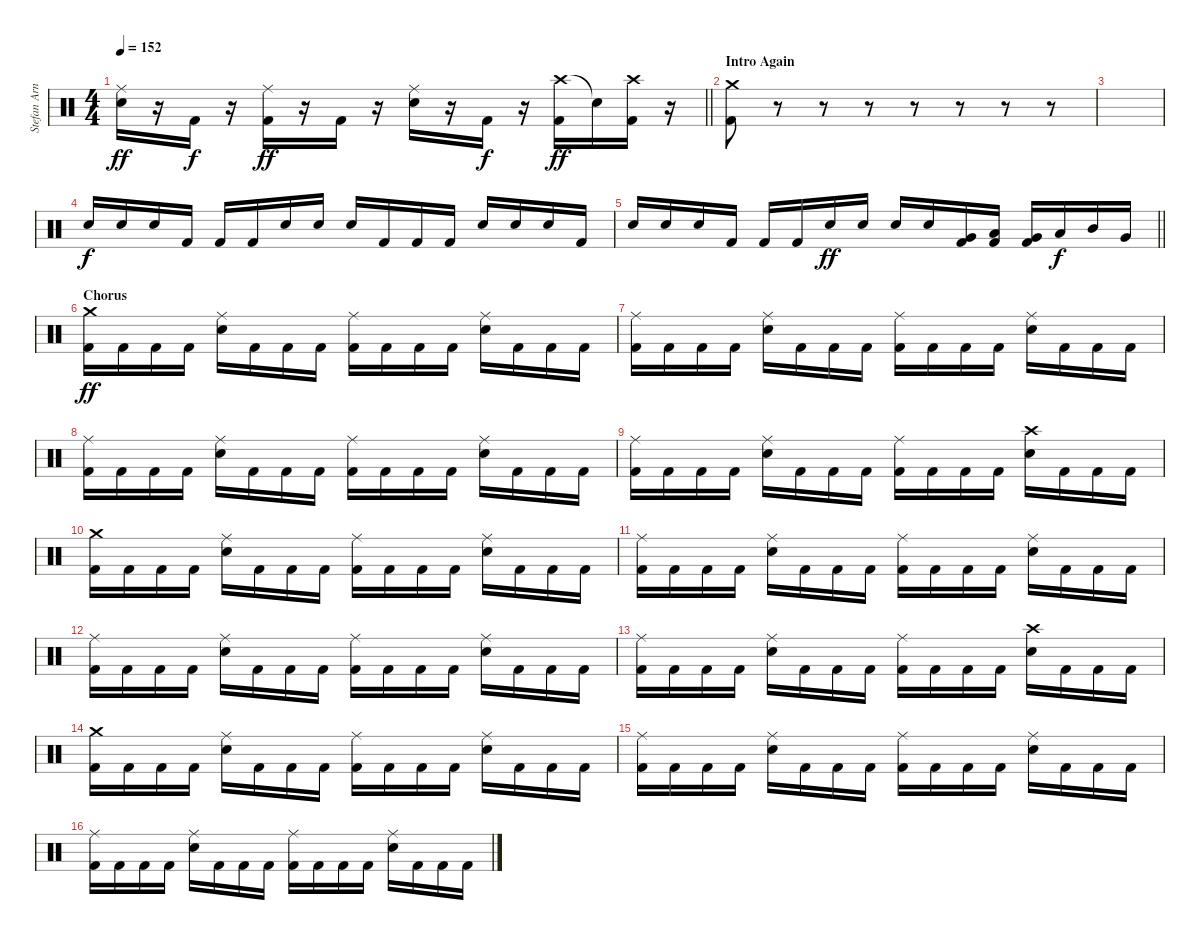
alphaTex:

\track ("Stefan Arnold" "Stefan Arn") {instrument percussion}
\staff {score}
\articulation defaults
\ts (4 4)
\tempo 152
\clef neutral
\barLineRight lightlight
\ks c
("Ride (middle)" "Electric Snare (hit)").16{dy ff} r.16 "Kick (hit) 2".16{dy f} r.16 ("Ride (middle)" "Kick (hit) 2").16{dy ff} r.16 "Kick (hit) 2".16 r.16 ("Ride (middle)" "Electric Snare (hit)").16 r.16 "Kick (hit) 2".16{dy f} r.16 ("Crash high (hit)" "Kick (hit) 2").16{dy ff} "Snare (hit)"{t}.16 ("Crash high (hit)" "Kick (hit) 2").16 r.16 |
\section ("" "Intro Again")
("Crash medium (hit)" "Kick (hit) 2").8 r.8 r.8 r.8 r.8 r.8 r.8 r.8 |
|
"Electric Snare (hit)".16{dy f} "Electric Snare (hit)".16 "Electric Snare (hit)".16 "Kick (hit) 2".16 "Kick (hit) 2".16 "Kick (hit) 2".16 "Electric Snare (hit)".16 "Electric Snare (hit)".16 "Electric Snare (hit)".16 "Kick (hit) 2".16 "Kick (hit) 2".16 "Kick (hit) 2".16 "Electric Snare (hit)".16 "Electric Snare (hit)".16 "Electric Snare (hit)".16 "Kick (hit) 2".16 |
\barLineRight lightlight "Electric Snare (hit)".16 "Electric Snare (hit)".16 "Electric Snare (hit)".16 "Kick (hit) 2".16 "Kick (hit) 2".16 "Kick (hit) 2".16 "Electric Snare (hit)".16{dy ff} "Electric Snare (hit)".16 "Electric Snare (hit)".16 "Electric Snare (hit)".16
("Very Low Tom (hit)" "Kick (hit) 2").16 ("Low Floor Tom (hit)" "Kick (hit) 2").16 ("Very Low Tom (hit)" "Kick (hit) 2").16 "Low Tom (hit)".16{dy f} "Mid Tom (hit)".16 "Very Low Tom (hit)".16 |
\section ("" "Chorus")
("Crash medium (hit)" "Kick (hit) 2").16{dy ff} "Kick (hit) 2".16 "Kick (hit) 2".16 "Kick (hit) 2".16 ("Ride (middle)" "Electric Snare (hit)").16 "Kick (hit) 2".16 "Kick (hit) 2".16 "Kick (hit) 2".16 ("Ride (middle)" "Kick (hit) 2").16 "Kick (hit) 2".16 "Kick (hit) 2".16 "Kick (hit) 2".16 ("Ride (middle)" "Electric Snare (hit)").16 "Kick (hit) 2".16 "Kick (hit) 2".16 "Kick (hit) 2".16 |
("Ride (middle)" "Kick (hit) 2").16 "Kick (hit) 2".16 "Kick (hit) 2".16 "Kick (hit) 2".16 ("Ride (middle)" "Electric Snare (hit)").16 "Kick (hit) 2".16 "Kick (hit) 2".16 "Kick (hit) 2".16 ("Ride (middle)" "Kick (hit) 2").16 "Kick (hit) 2".16 "Kick (hit) 2".16 "Kick (hit) 2".16 ("Ride (middle)" "Electric Snare (hit)").16 "Kick (hit) 2".16 "Kick (hit) 2".16 "Kick (hit) 2".16 |
("Ride (middle)" "Kick (hit) 2").16 "Kick (hit) 2".16 "Kick (hit) 2".16 "Kick (hit) 2".16 ("Ride (middle)" "Electric Snare (hit)").16 "Kick (hit) 2".16 "Kick (hit) 2".16 "Kick (hit) 2".16 ("Ride (middle)" "Kick (hit) 2").16 "Kick (hit) 2".16 "Kick (hit) 2".16 "Kick (hit) 2".16 ("Ride (middle)" "Electric Snare (hit)").16 "Kick (hit) 2".16 "Kick (hit) 2".16 "Kick (hit) 2".16 |
("Ride (middle)" "Kick (hit) 2").16 "Kick (hit) 2".16 "Kick (hit) 2".16 "Kick (hit) 2".16 ("Ride (middle)" "Electric Snare (hit)").16 "Kick (hit) 2".16 "Kick (hit) 2".16 "Kick (hit) 2".16 ("Ride (middle)" "Kick (hit) 2").16 "Kick (hit) 2".16 "Kick (hit) 2".16 "Kick (hit) 2".16 ("Crash high (hit)" "Electric Snare (hit)").16 "Kick (hit) 2".16 "Kick (hit) 2".16 "Kick (hit) 2".16 |
("Crash medium (hit)" "Kick (hit) 2").16 "Kick (hit) 2".16 "Kick (hit) 2".16 "Kick (hit) 2".16 ("Ride (middle)" "Electric Snare (hit)").16 "Kick (hit) 2".16 "Kick (hit) 2".16 "Kick (hit) 2".16 ("Ride (middle)" "Kick (hit) 2").16 "Kick (hit) 2".16 "Kick (hit) 2".16 "Kick (hit) 2".16 ("Ride (middle)" "Electric Snare (hit)").16 "Kick (hit) 2".16 "Kick (hit) 2".16 "Kick (hit) 2".16 |
("Ride (middle)" "Kick (hit) 2").16 "Kick (hit) 2".16 "Kick (hit) 2".16 "Kick (hit) 2".16 ("Ride (middle)" "Electric Snare (hit)").16 "Kick (hit) 2".16 "Kick (hit) 2".16 "Kick (hit) 2".16 ("Ride (middle)" "Kick (hit) 2").16 "Kick (hit) 2".16 "Kick (hit) 2".16 "Kick (hit) 2".16 ("Ride (middle)" "Electric Snare (hit)").16 "Kick (hit) 2".16 "Kick (hit) 2".16 "Kick (hit) 2".16 |
("Ride (middle)" "Kick (hit) 2").16 "Kick (hit) 2".16 "Kick (hit) 2".16 "Kick (hit) 2".16 ("Ride (middle)" "Electric Snare (hit)").16 "Kick (hit) 2".16 "Kick (hit) 2".16 "Kick (hit) 2".16 ("Ride (middle)" "Kick (hit) 2").16 "Kick (hit) 2".16 "Kick (hit) 2".16 "Kick (hit) 2".16 ("Ride (middle)" "Electric Snare (hit)").16 "Kick (hit) 2".16 "Kick (hit) 2".16 "Kick (hit) 2".16 |
("Ride (middle)" "Kick (hit) 2").16 "Kick (hit) 2".16 "Kick (hit) 2".16 "Kick (hit) 2".16 ("Ride (middle)" "Electric Snare (hit)").16 "Kick (hit) 2".16 "Kick (hit) 2".16 "Kick (hit) 2".16 ("Ride (middle)" "Kick (hit) 2").16 "Kick (hit) 2".16 "Kick (hit) 2".16 "Kick (hit) 2".16 ("Crash high (hit)" "Electric Snare (hit)").16 "Kick (hit) 2".16 "Kick (hit) 2".16 "Kick (hit) 2".16 |
("Crash medium (hit)" "Kick (hit) 2").16 "Kick (hit) 2".16 "Kick (hit) 2".16 "Kick (hit) 2".16 ("Ride (middle)" "Electric Snare (hit)").16 "Kick (hit) 2".16 "Kick (hit) 2".16 "Kick (hit) 2".16 ("Ride (middle)" "Kick (hit) 2").16 "Kick (hit) 2".16 "Kick (hit) 2".16 "Kick (hit) 2".16 ("Ride (middle)" "Electric Snare (hit)").16 "Kick (hit) 2".16 "Kick (hit) 2".16 "Kick (hit) 2".16 |
("Ride (middle)" "Kick (hit) 2").16 "Kick (hit) 2".16 "Kick (hit) 2".16 "Kick (hit) 2".16 ("Ride (middle)" "Electric Snare (hit)").16 "Kick (hit) 2".16 "Kick (hit) 2".16 "Kick (hit) 2".16 ("Ride (middle)" "Kick (hit) 2").16 "Kick (hit) 2".16 "Kick (hit) 2".16 "Kick (hit) 2".16 ("Ride (middle)" "Electric Snare (hit)").16 "Kick (hit) 2".16 "Kick (hit) 2".16 "Kick (hit) 2".16 |
("Ride (middle)" "Kick (hit) 2").16 "Kick (hit) 2".16 "Kick (hit) 2".16 "Kick (hit) 2".16 ("Ride (middle)" "Electric Snare (hit)").16 "Kick (hit) 2".16 "Kick (hit) 2".16 "Kick (hit) 2".16 ("Ride (middle)" "Kick (hit) 2").16 "Kick (hit) 2".16 "Kick (hit) 2".16 "Kick (hit) 2".16 ("Ride (middle)" "Electric Snare (hit)").16 "Kick (hit) 2".16 "Kick (hit) 2".16 "Kick (hit) 2".16
